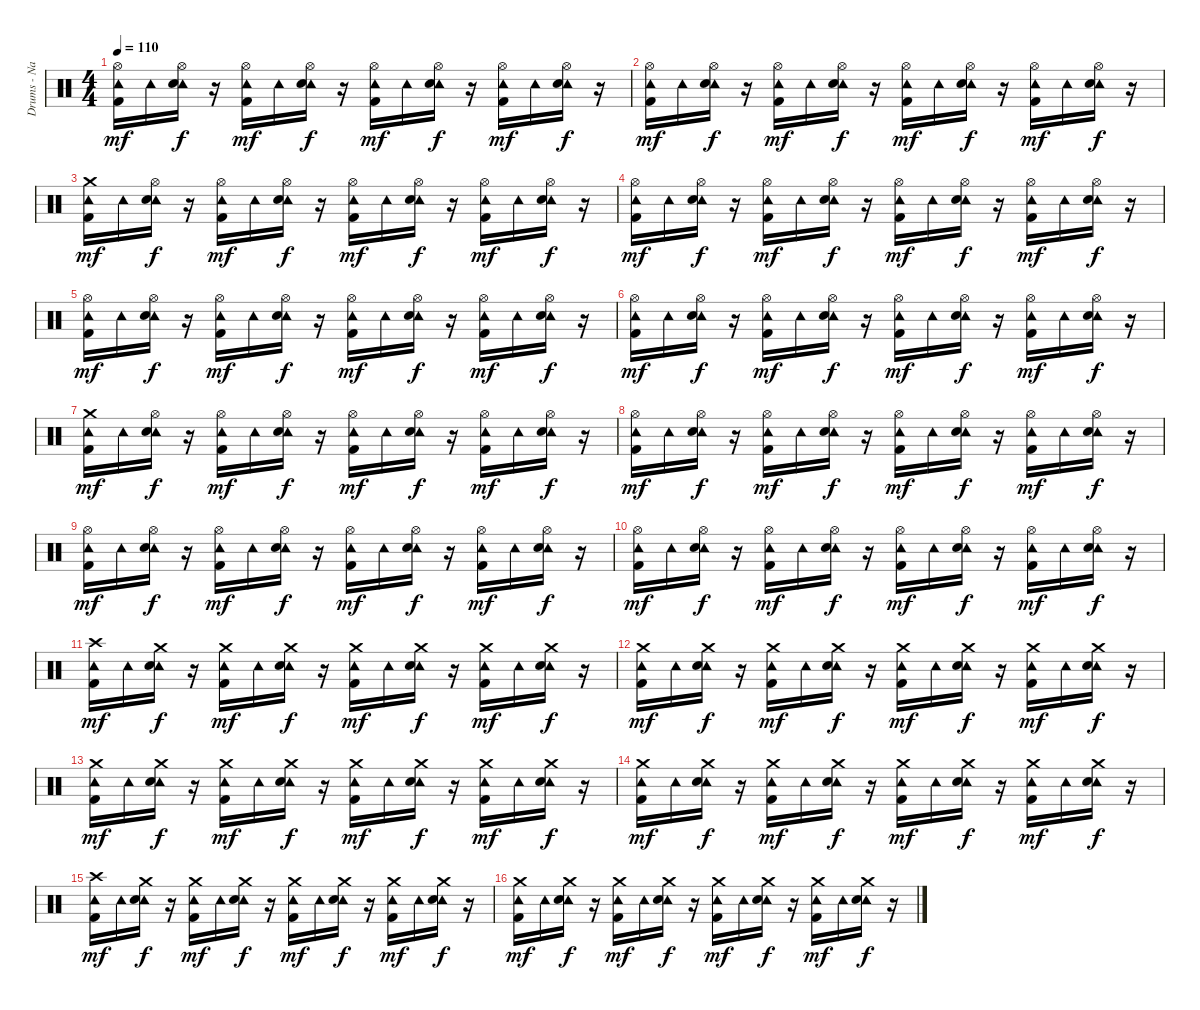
\track ("Drums - Nathan" "Drums - Na") {instrument percussion}
\staff {score}
\articulation defaults
\ts (4 4)
\tempo 110
\clef neutral
\ks c
("Hi-Hat (open)" "Tambourine (hit)" "Kick (hit) 2").16{dy mf} "Tambourine (hit)".16 ("Hi-Hat (open)" "Tambourine (hit)" "Electric Snare (hit)").16{dy f} r.16 ("Hi-Hat (open)" "Tambourine (hit)" "Kick (hit) 2").16{dy mf} "Tambourine (hit)".16 ("Hi-Hat (open)" "Tambourine (hit)" "Electric Snare (hit)").16{dy f} r.16 ("Hi-Hat (open)" "Tambourine (hit)" "Kick (hit) 2").16{dy mf} "Tambourine (hit)".16 ("Hi-Hat (open)" "Tambourine (hit)" "Electric Snare (hit)").16{dy f} r.16 ("Hi-Hat (open)" "Tambourine (hit)" "Kick (hit) 2").16{dy mf} "Tambourine (hit)".16 ("Hi-Hat (open)" "Tambourine (hit)" "Electric Snare (hit)").16{dy f} r.16 |
("Hi-Hat (open)" "Tambourine (hit)" "Kick (hit) 2").16{dy mf} "Tambourine (hit)".16 ("Hi-Hat (open)" "Tambourine (hit)" "Electric Snare (hit)").16{dy f} r.16 ("Hi-Hat (open)" "Tambourine (hit)" "Kick (hit) 2").16{dy mf} "Tambourine (hit)".16 ("Hi-Hat (open)" "Tambourine (hit)" "Electric Snare (hit)").16{dy f} r.16 ("Hi-Hat (open)" "Tambourine (hit)" "Kick (hit) 2").16{dy mf} "Tambourine (hit)".16 ("Hi-Hat (open)" "Tambourine (hit)" "Electric Snare (hit)").16{dy f} r.16 ("Hi-Hat (open)" "Tambourine (hit)" "Kick (hit) 2").16{dy mf} "Tambourine (hit)".16 ("Hi-Hat (open)" "Tambourine (hit)" "Electric Snare (hit)").16{dy f} r.16 |
("Crash medium (hit)" "Tambourine (hit)" "Kick (hit) 2").16{dy mf} "Tambourine (hit)".16 ("Hi-Hat (open)" "Tambourine (hit)" "Electric Snare (hit)").16{dy f} r.16 ("Hi-Hat (open)" "Tambourine (hit)" "Kick (hit) 2").16{dy mf} "Tambourine (hit)".16 ("Hi-Hat (open)" "Tambourine (hit)" "Electric Snare (hit)").16{dy f} r.16 ("Hi-Hat (open)" "Tambourine (hit)" "Kick (hit) 2").16{dy mf} "Tambourine (hit)".16 ("Hi-Hat (open)" "Tambourine (hit)" "Electric Snare (hit)").16{dy f} r.16 ("Hi-Hat (open)" "Tambourine (hit)" "Kick (hit) 2").16{dy mf} "Tambourine (hit)".16 ("Hi-Hat (open)" "Tambourine (hit)" "Electric Snare (hit)").16{dy f} r.16 |
("Hi-Hat (open)" "Tambourine (hit)" "Kick (hit) 2").16{dy mf} "Tambourine (hit)".16 ("Hi-Hat (open)" "Tambourine (hit)" "Electric Snare (hit)").16{dy f} r.16 ("Hi-Hat (open)" "Tambourine (hit)" "Kick (hit) 2").16{dy mf} "Tambourine (hit)".16 ("Hi-Hat (open)" "Tambourine (hit)" "Electric Snare (hit)").16{dy f} r.16 ("Hi-Hat (open)" "Tambourine (hit)" "Kick (hit) 2").16{dy mf} "Tambourine (hit)".16 ("Hi-Hat (open)" "Tambourine (hit)" "Electric Snare (hit)").16{dy f} r.16 ("Hi-Hat (open)" "Tambourine (hit)" "Kick (hit) 2").16{dy mf} "Tambourine (hit)".16 ("Hi-Hat (open)" "Tambourine (hit)" "Electric Snare (hit)").16{dy f} r.16 |
("Hi-Hat (open)" "Tambourine (hit)" "Kick (hit) 2").16{dy mf} "Tambourine (hit)".16 ("Hi-Hat (open)" "Tambourine (hit)" "Electric Snare (hit)").16{dy f} r.16 ("Hi-Hat (open)" "Tambourine (hit)" "Kick (hit) 2").16{dy mf} "Tambourine (hit)".16 ("Hi-Hat (open)" "Tambourine (hit)" "Electric Snare (hit)").16{dy f} r.16 ("Hi-Hat (open)" "Tambourine (hit)" "Kick (hit) 2").16{dy mf} "Tambourine (hit)".16 ("Hi-Hat (open)" "Tambourine (hit)" "Electric Snare (hit)").16{dy f} r.16 ("Hi-Hat (open)" "Tambourine (hit)" "Kick (hit) 2").16{dy mf} "Tambourine (hit)".16 ("Hi-Hat (open)" "Tambourine (hit)" "Electric Snare (hit)").16{dy f} r.16 |
("Hi-Hat (open)" "Tambourine (hit)" "Kick (hit) 2").16{dy mf} "Tambourine (hit)".16 ("Hi-Hat (open)" "Tambourine (hit)" "Electric Snare (hit)").16{dy f} r.16 ("Hi-Hat (open)" "Tambourine (hit)" "Kick (hit) 2").16{dy mf} "Tambourine (hit)".16 ("Hi-Hat (open)" "Tambourine (hit)" "Electric Snare (hit)").16{dy f} r.16 ("Hi-Hat (open)" "Tambourine (hit)" "Kick (hit) 2").16{dy mf} "Tambourine (hit)".16 ("Hi-Hat (open)" "Tambourine (hit)" "Electric Snare (hit)").16{dy f} r.16 ("Hi-Hat (open)" "Tambourine (hit)" "Kick (hit) 2").16{dy mf} "Tambourine (hit)".16 ("Hi-Hat (open)" "Tambourine (hit)" "Electric Snare (hit)").16{dy f} r.16 |
("Crash medium (hit)" "Tambourine (hit)" "Kick (hit) 2").16{dy mf} "Tambourine (hit)".16 ("Hi-Hat (open)" "Tambourine (hit)" "Electric Snare (hit)").16{dy f} r.16 ("Hi-Hat (open)" "Tambourine (hit)" "Kick (hit) 2").16{dy mf} "Tambourine (hit)".16 ("Hi-Hat (open)" "Tambourine (hit)" "Electric Snare (hit)").16{dy f} r.16 ("Hi-Hat (open)" "Tambourine (hit)" "Kick (hit) 2").16{dy mf} "Tambourine (hit)".16 ("Hi-Hat (open)" "Tambourine (hit)" "Electric Snare (hit)").16{dy f} r.16 ("Hi-Hat (open)" "Tambourine (hit)" "Kick (hit) 2").16{dy mf} "Tambourine (hit)".16 ("Hi-Hat (open)" "Tambourine (hit)" "Electric Snare (hit)").16{dy f} r.16 |
("Hi-Hat (open)" "Tambourine (hit)" "Kick (hit) 2").16{dy mf} "Tambourine (hit)".16 ("Hi-Hat (open)" "Tambourine (hit)" "Electric Snare (hit)").16{dy f} r.16 ("Hi-Hat (open)" "Tambourine (hit)" "Kick (hit) 2").16{dy mf} "Tambourine (hit)".16 ("Hi-Hat (open)" "Tambourine (hit)" "Electric Snare (hit)").16{dy f} r.16 ("Hi-Hat (open)" "Tambourine (hit)" "Kick (hit) 2").16{dy mf} "Tambourine (hit)".16 ("Hi-Hat (open)" "Tambourine (hit)" "Electric Snare (hit)").16{dy f} r.16 ("Hi-Hat (open)" "Tambourine (hit)" "Kick (hit) 2").16{dy mf} "Tambourine (hit)".16 ("Hi-Hat (open)" "Tambourine (hit)" "Electric Snare (hit)").16{dy f} r.16 |
("Hi-Hat (open)" "Tambourine (hit)" "Kick (hit) 2").16{dy mf} "Tambourine (hit)".16 ("Hi-Hat (open)" "Tambourine (hit)" "Electric Snare (hit)").16{dy f} r.16 ("Hi-Hat (open)" "Tambourine (hit)" "Kick (hit) 2").16{dy mf} "Tambourine (hit)".16 ("Hi-Hat (open)" "Tambourine (hit)" "Electric Snare (hit)").16{dy f} r.16 ("Hi-Hat (open)" "Tambourine (hit)" "Kick (hit) 2").16{dy mf} "Tambourine (hit)".16 ("Hi-Hat (open)" "Tambourine (hit)" "Electric Snare (hit)").16{dy f} r.16 ("Hi-Hat (open)" "Tambourine (hit)" "Kick (hit) 2").16{dy mf} "Tambourine (hit)".16 ("Hi-Hat (open)" "Tambourine (hit)" "Electric Snare (hit)").16{dy f} r.16 |
("Hi-Hat (open)" "Tambourine (hit)" "Kick (hit) 2").16{dy mf} "Tambourine (hit)".16 ("Hi-Hat (open)" "Tambourine (hit)" "Electric Snare (hit)").16{dy f} r.16 ("Hi-Hat (open)" "Tambourine (hit)" "Kick (hit) 2").16{dy mf} "Tambourine (hit)".16 ("Hi-Hat (open)" "Tambourine (hit)" "Electric Snare (hit)").16{dy f} r.16 ("Hi-Hat (open)" "Tambourine (hit)" "Kick (hit) 2").16{dy mf} "Tambourine (hit)".16 ("Hi-Hat (open)" "Tambourine (hit)" "Electric Snare (hit)").16{dy f} r.16 ("Hi-Hat (open)" "Tambourine (hit)" "Kick (hit) 2").16{dy mf} "Tambourine (hit)".16 ("Hi-Hat (open)" "Tambourine (hit)" "Electric Snare (hit)").16{dy f} r.16 |
("Crash high (hit)" "Tambourine (hit)" "Kick (hit) 2").16{dy mf} "Tambourine (hit)".16 ("Crash medium (hit)" "Tambourine (hit)" "Electric Snare (hit)").16{dy f} r.16 ("Crash medium (hit)" "Tambourine (hit)" "Kick (hit) 2").16{dy mf} "Tambourine (hit)".16 ("Crash medium (hit)" "Tambourine (hit)" "Electric Snare (hit)").16{dy f} r.16 ("Crash medium (hit)" "Tambourine (hit)" "Kick (hit) 2").16{dy mf} "Tambourine (hit)".16 ("Crash medium (hit)" "Tambourine (hit)" "Electric Snare (hit)").16{dy f} r.16 ("Crash medium (hit)" "Tambourine (hit)" "Kick (hit) 2").16{dy mf} "Tambourine (hit)".16 ("Crash medium (hit)" "Tambourine (hit)" "Electric Snare (hit)").16{dy f} r.16 |
("Crash medium (hit)" "Tambourine (hit)" "Kick (hit) 2").16{dy mf} "Tambourine (hit)".16 ("Crash medium (hit)" "Tambourine (hit)" "Electric Snare (hit)").16{dy f} r.16 ("Crash medium (hit)" "Tambourine (hit)" "Kick (hit) 2").16{dy mf} "Tambourine (hit)".16 ("Crash medium (hit)" "Tambourine (hit)" "Electric Snare (hit)").16{dy f} r.16 ("Crash medium (hit)" "Tambourine (hit)" "Kick (hit) 2").16{dy mf} "Tambourine (hit)".16 ("Crash medium (hit)" "Tambourine (hit)" "Electric Snare (hit)").16{dy f} r.16 ("Crash medium (hit)" "Tambourine (hit)" "Kick (hit) 2").16{dy mf} "Tambourine (hit)".16 ("Crash medium (hit)" "Tambourine (hit)" "Electric Snare (hit)").16{dy f} r.16 |
("Crash medium (hit)" "Tambourine (hit)" "Kick (hit) 2").16{dy mf} "Tambourine (hit)".16 ("Crash medium (hit)" "Tambourine (hit)" "Electric Snare (hit)").16{dy f} r.16 ("Crash medium (hit)" "Tambourine (hit)" "Kick (hit) 2").16{dy mf} "Tambourine (hit)".16 ("Crash medium (hit)" "Tambourine (hit)" "Electric Snare (hit)").16{dy f} r.16 ("Crash medium (hit)" "Tambourine (hit)" "Kick (hit) 2").16{dy mf} "Tambourine (hit)".16 ("Crash medium (hit)" "Tambourine (hit)" "Electric Snare (hit)").16{dy f} r.16 ("Crash medium (hit)" "Tambourine (hit)" "Kick (hit) 2").16{dy mf} "Tambourine (hit)".16 ("Crash medium (hit)" "Tambourine (hit)" "Electric Snare (hit)").16{dy f} r.16 |
("Crash medium (hit)" "Tambourine (hit)" "Kick (hit) 2").16{dy mf} "Tambourine (hit)".16 ("Crash medium (hit)" "Tambourine (hit)" "Electric Snare (hit)").16{dy f} r.16 ("Crash medium (hit)" "Tambourine (hit)" "Kick (hit) 2").16{dy mf} "Tambourine (hit)".16 ("Crash medium (hit)" "Tambourine (hit)" "Electric Snare (hit)").16{dy f} r.16 ("Crash medium (hit)" "Tambourine (hit)" "Kick (hit) 2").16{dy mf} "Tambourine (hit)".16 ("Crash medium (hit)" "Tambourine (hit)" "Electric Snare (hit)").16{dy f} r.16 ("Crash medium (hit)" "Tambourine (hit)" "Kick (hit) 2").16{dy mf} "Tambourine (hit)".16 ("Crash medium (hit)" "Tambourine (hit)" "Electric Snare (hit)").16{dy f} r.16 |
("Crash high (hit)" "Tambourine (hit)" "Kick (hit) 2").16{dy mf} "Tambourine (hit)".16 ("Crash medium (hit)" "Tambourine (hit)" "Electric Snare (hit)").16{dy f} r.16 ("Crash medium (hit)" "Tambourine (hit)" "Kick (hit) 2").16{dy mf} "Tambourine (hit)".16 ("Crash medium (hit)" "Tambourine (hit)" "Electric Snare (hit)").16{dy f} r.16 ("Crash medium (hit)" "Tambourine (hit)" "Kick (hit) 2").16{dy mf} "Tambourine (hit)".16 ("Crash medium (hit)" "Tambourine (hit)" "Electric Snare (hit)").16{dy f} r.16 ("Crash medium (hit)" "Tambourine (hit)" "Kick (hit) 2").16{dy mf} "Tambourine (hit)".16 ("Crash medium (hit)" "Tambourine (hit)" "Electric Snare (hit)").16{dy f} r.16 |
("Crash medium (hit)" "Tambourine (hit)" "Kick (hit) 2").16{dy mf} "Tambourine (hit)".16 ("Crash medium (hit)" "Tambourine (hit)" "Electric Snare (hit)").16{dy f} r.16 ("Crash medium (hit)" "Tambourine (hit)" "Kick (hit) 2").16{dy mf} "Tambourine (hit)".16 ("Crash medium (hit)" "Tambourine (hit)" "Electric Snare (hit)").16{dy f} r.16 ("Crash medium (hit)" "Tambourine (hit)" "Kick (hit) 2").16{dy mf} "Tambourine (hit)".16 ("Crash medium (hit)" "Tambourine (hit)" "Electric Snare (hit)").16{dy f} r.16 ("Crash medium (hit)" "Tambourine (hit)" "Kick (hit) 2").16{dy mf} "Tambourine (hit)".16 ("Crash medium (hit)" "Tambourine (hit)" "Electric Snare (hit)").16{dy f} r.16
